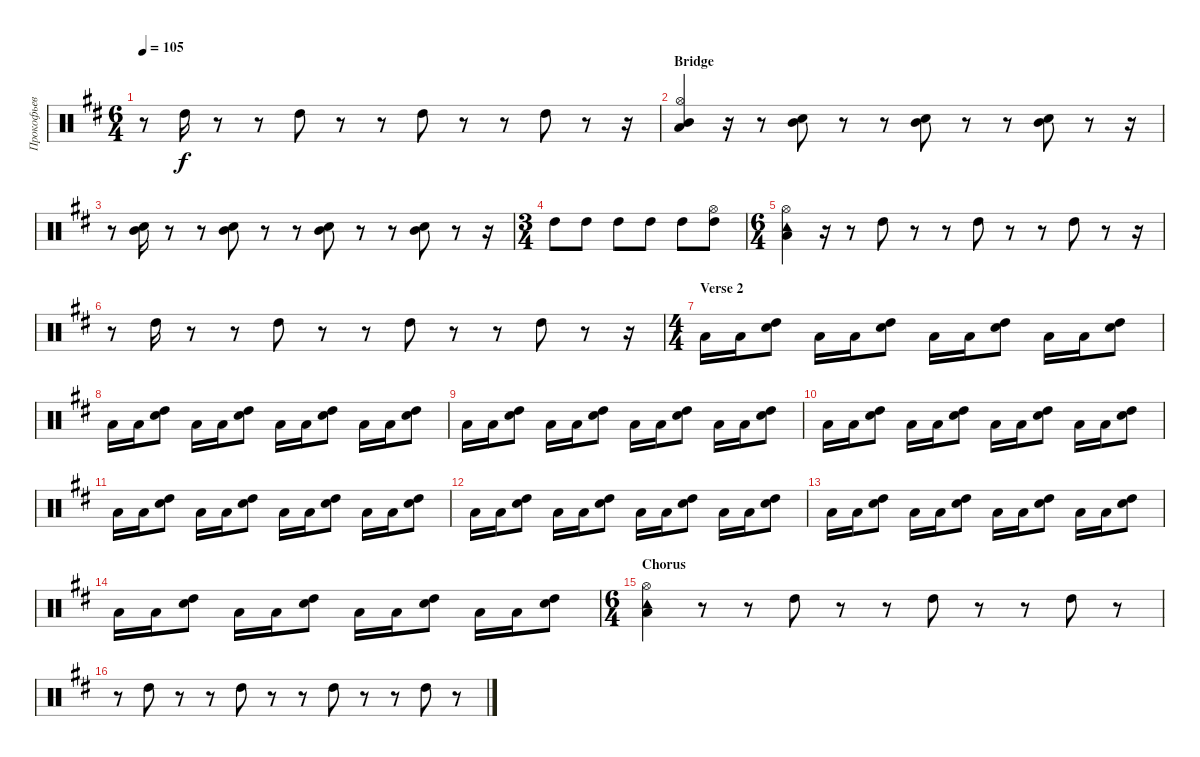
\track ("Прокофьев" "Прокофьев") {instrument percussion}
\staff {score}
\articulation defaults
\ts (6 4)
\tempo 105
\clef neutral
\ks d
r.8{dy f} "High Tom (hit)".16 r.8 r.8 "High Tom (hit)".8 r.8 r.8 "High Tom (hit)".8 r.8 r.8 "High Tom (hit)".8 r.8 r.16 |
\section ("" "Bridge")
("Mid Tom (hit)" "Hi-Hat (open)" "Low Tom (hit)").4 r.16 r.8 ("Mid Tom (hit)" "Snare (hit) 2").8 r.8 r.8 ("Mid Tom (hit)" "Snare (hit) 2").8 r.8 r.8 ("Mid Tom (hit)" "Snare (hit) 2").8 r.8 r.16 |
r.8 ("Mid Tom (hit)" "Snare (hit) 2").16 r.8 r.8 ("Mid Tom (hit)" "Snare (hit) 2").8 r.8 r.8 ("Mid Tom (hit)" "Snare (hit) 2").8 r.8 r.8 ("Mid Tom (hit)" "Snare (hit) 2").8 r.8 r.16 |
\ts (3 4)
"High Tom (hit)".8 "High Tom (hit)".8 "High Tom (hit)".8 "High Tom (hit)".8 "High Tom (hit)".8 ("High Tom (hit)" "Hi-Hat (open)").8 |
\ts (6 4)
("Tambourine (hit)" "Hi-Hat (open)" "Low Tom (hit)").4 r.16 r.8 "High Tom (hit)".8 r.8 r.8 "High Tom (hit)".8 r.8 r.8 "High Tom (hit)".8 r.8 r.16 |
r.8 "High Tom (hit)".16 r.8 r.8 "High Tom (hit)".8 r.8 r.8 "High Tom (hit)".8 r.8 r.8 "High Tom (hit)".8 r.8 r.16 |
\ts (4 4)
\section ("" "Verse 2")
"Low Tom (hit)".16 "Low Tom (hit)".16 ("High Tom (hit)" "Snare (hit) 2").8 "Low Tom (hit)".16 "Low Tom (hit)".16 ("High Tom (hit)" "Snare (hit) 2").8 "Low Tom (hit)".16 "Low Tom (hit)".16 ("High Tom (hit)" "Snare (hit) 2").8 "Low Tom (hit)".16 "Low Tom (hit)".16 ("High Tom (hit)" "Snare (hit) 2").8 |
"Low Tom (hit)".16 "Low Tom (hit)".16 ("High Tom (hit)" "Snare (hit) 2").8 "Low Tom (hit)".16 "Low Tom (hit)".16 ("High Tom (hit)" "Snare (hit) 2").8 "Low Tom (hit)".16 "Low Tom (hit)".16 ("High Tom (hit)" "Snare (hit) 2").8 "Low Tom (hit)".16 "Low Tom (hit)".16 ("High Tom (hit)" "Snare (hit) 2").8 |
"Low Tom (hit)".16 "Low Tom (hit)".16 ("High Tom (hit)" "Snare (hit) 2").8 "Low Tom (hit)".16 "Low Tom (hit)".16 ("High Tom (hit)" "Snare (hit) 2").8 "Low Tom (hit)".16 "Low Tom (hit)".16 ("High Tom (hit)" "Snare (hit) 2").8 "Low Tom (hit)".16 "Low Tom (hit)".16 ("High Tom (hit)" "Snare (hit) 2").8 |
"Low Tom (hit)".16 "Low Tom (hit)".16 ("High Tom (hit)" "Snare (hit) 2").8 "Low Tom (hit)".16 "Low Tom (hit)".16 ("High Tom (hit)" "Snare (hit) 2").8 "Low Tom (hit)".16 "Low Tom (hit)".16 ("High Tom (hit)" "Snare (hit) 2").8 "Low Tom (hit)".16 "Low Tom (hit)".16 ("High Tom (hit)" "Snare (hit) 2").8 |
"Low Tom (hit)".16 "Low Tom (hit)".16 ("High Tom (hit)" "Snare (hit) 2").8 "Low Tom (hit)".16 "Low Tom (hit)".16 ("High Tom (hit)" "Snare (hit) 2").8 "Low Tom (hit)".16 "Low Tom (hit)".16 ("High Tom (hit)" "Snare (hit) 2").8 "Low Tom (hit)".16 "Low Tom (hit)".16 ("High Tom (hit)" "Snare (hit) 2").8 |
"Low Tom (hit)".16 "Low Tom (hit)".16 ("High Tom (hit)" "Snare (hit) 2").8 "Low Tom (hit)".16 "Low Tom (hit)".16 ("High Tom (hit)" "Snare (hit) 2").8 "Low Tom (hit)".16 "Low Tom (hit)".16 ("High Tom (hit)" "Snare (hit) 2").8 "Low Tom (hit)".16 "Low Tom (hit)".16 ("High Tom (hit)" "Snare (hit) 2").8 |
"Low Tom (hit)".16 "Low Tom (hit)".16 ("High Tom (hit)" "Snare (hit) 2").8 "Low Tom (hit)".16 "Low Tom (hit)".16 ("High Tom (hit)" "Snare (hit) 2").8 "Low Tom (hit)".16 "Low Tom (hit)".16 ("High Tom (hit)" "Snare (hit) 2").8 "Low Tom (hit)".16 "Low Tom (hit)".16 ("High Tom (hit)" "Snare (hit) 2").8 |
"Low Tom (hit)".16 "Low Tom (hit)".16 ("High Tom (hit)" "Snare (hit) 2").8 "Low Tom (hit)".16 "Low Tom (hit)".16 ("High Tom (hit)" "Snare (hit) 2").8 "Low Tom (hit)".16 "Low Tom (hit)".16 ("High Tom (hit)" "Snare (hit) 2").8 "Low Tom (hit)".16 "Low Tom (hit)".16 ("High Tom (hit)" "Snare (hit) 2").8 |
\ts (6 4)
\section ("" "Chorus")
("Tambourine (hit)" "Hi-Hat (open)" "Low Tom (hit)").4 r.8 r.8 "High Tom (hit)".8 r.8 r.8 "High Tom (hit)".8 r.8 r.8 "High Tom (hit)".8 r.8 |
r.8 "High Tom (hit)".8 r.8 r.8 "High Tom (hit)".8 r.8 r.8 "High Tom (hit)".8 r.8 r.8 "High Tom (hit)".8 r.8
